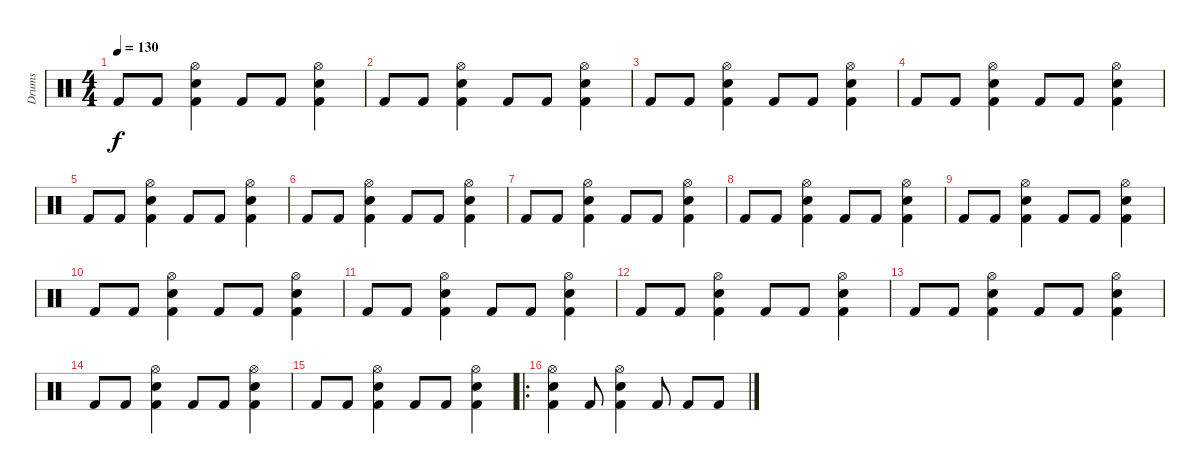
\track ("Drums" "Drums") {instrument percussion}
\staff {score}
\articulation defaults
\ts (4 4)
\tempo 130
\clef neutral
\ks c "Kick (hit) 2".8{dy f} "Kick (hit) 2".8
("Kick (hit) 2" "Snare (hit) 2" "Hi-Hat (open)").4 "Kick (hit) 2".8 "Kick (hit) 2".8 ("Kick (hit) 2" "Snare (hit) 2" "Hi-Hat (open)").4 |
"Kick (hit) 2".8 "Kick (hit) 2".8 ("Kick (hit) 2" "Snare (hit) 2" "Hi-Hat (open)").4 "Kick (hit) 2".8 "Kick (hit) 2".8 ("Kick (hit) 2" "Snare (hit) 2" "Hi-Hat (open)").4 |
"Kick (hit) 2".8 "Kick (hit) 2".8 ("Kick (hit) 2" "Snare (hit) 2" "Hi-Hat (open)").4 "Kick (hit) 2".8 "Kick (hit) 2".8 ("Kick (hit) 2" "Snare (hit) 2" "Hi-Hat (open)").4 |
"Kick (hit) 2".8 "Kick (hit) 2".8 ("Kick (hit) 2" "Snare (hit) 2" "Hi-Hat (open)").4 "Kick (hit) 2".8 "Kick (hit) 2".8 ("Kick (hit) 2" "Snare (hit) 2" "Hi-Hat (open)").4 |
"Kick (hit) 2".8 "Kick (hit) 2".8 ("Kick (hit) 2" "Snare (hit) 2" "Hi-Hat (open)").4 "Kick (hit) 2".8 "Kick (hit) 2".8 ("Kick (hit) 2" "Snare (hit) 2" "Hi-Hat (open)").4 |
"Kick (hit) 2".8 "Kick (hit) 2".8 ("Kick (hit) 2" "Snare (hit) 2" "Hi-Hat (open)").4 "Kick (hit) 2".8 "Kick (hit) 2".8 ("Kick (hit) 2" "Snare (hit) 2" "Hi-Hat (open)").4 |
"Kick (hit) 2".8 "Kick (hit) 2".8 ("Kick (hit) 2" "Snare (hit) 2" "Hi-Hat (open)").4 "Kick (hit) 2".8 "Kick (hit) 2".8 ("Kick (hit) 2" "Snare (hit) 2" "Hi-Hat (open)").4 |
"Kick (hit) 2".8 "Kick (hit) 2".8 ("Kick (hit) 2" "Snare (hit) 2" "Hi-Hat (open)").4 "Kick (hit) 2".8 "Kick (hit) 2".8 ("Kick (hit) 2" "Snare (hit) 2" "Hi-Hat (open)").4 |
"Kick (hit) 2".8 "Kick (hit) 2".8 ("Kick (hit) 2" "Snare (hit) 2" "Hi-Hat (open)").4 "Kick (hit) 2".8 "Kick (hit) 2".8 ("Kick (hit) 2" "Snare (hit) 2" "Hi-Hat (open)").4 |
"Kick (hit) 2".8 "Kick (hit) 2".8 ("Kick (hit) 2" "Snare (hit) 2" "Hi-Hat (open)").4 "Kick (hit) 2".8 "Kick (hit) 2".8 ("Kick (hit) 2" "Snare (hit) 2" "Hi-Hat (open)").4 |
"Kick (hit) 2".8 "Kick (hit) 2".8 ("Kick (hit) 2" "Snare (hit) 2" "Hi-Hat (open)").4 "Kick (hit) 2".8 "Kick (hit) 2".8 ("Kick (hit) 2" "Snare (hit) 2" "Hi-Hat (open)").4 |
"Kick (hit) 2".8 "Kick (hit) 2".8 ("Kick (hit) 2" "Snare (hit) 2" "Hi-Hat (open)").4 "Kick (hit) 2".8 "Kick (hit) 2".8 ("Kick (hit) 2" "Snare (hit) 2" "Hi-Hat (open)").4 |
"Kick (hit) 2".8 "Kick (hit) 2".8 ("Kick (hit) 2" "Snare (hit) 2" "Hi-Hat (open)").4 "Kick (hit) 2".8 "Kick (hit) 2".8 ("Kick (hit) 2" "Snare (hit) 2" "Hi-Hat (open)").4 |
"Kick (hit) 2".8 "Kick (hit) 2".8 ("Kick (hit) 2" "Snare (hit) 2" "Hi-Hat (open)").4 "Kick (hit) 2".8 "Kick (hit) 2".8 ("Kick (hit) 2" "Snare (hit) 2" "Hi-Hat (open)").4 |
"Kick (hit) 2".8 "Kick (hit) 2".8 ("Kick (hit) 2" "Snare (hit) 2" "Hi-Hat (open)").4 "Kick (hit) 2".8 "Kick (hit) 2".8 ("Kick (hit) 2" "Snare (hit) 2" "Hi-Hat (open)").4 |
\ro
("Kick (hit) 2" "Snare (hit) 2" "Hi-Hat (open)").4 "Kick (hit) 2".8 ("Kick (hit) 2" "Snare (hit) 2" "Hi-Hat (open)").4 "Kick (hit) 2".8 "Kick (hit) 2".8 "Kick (hit) 2".8
